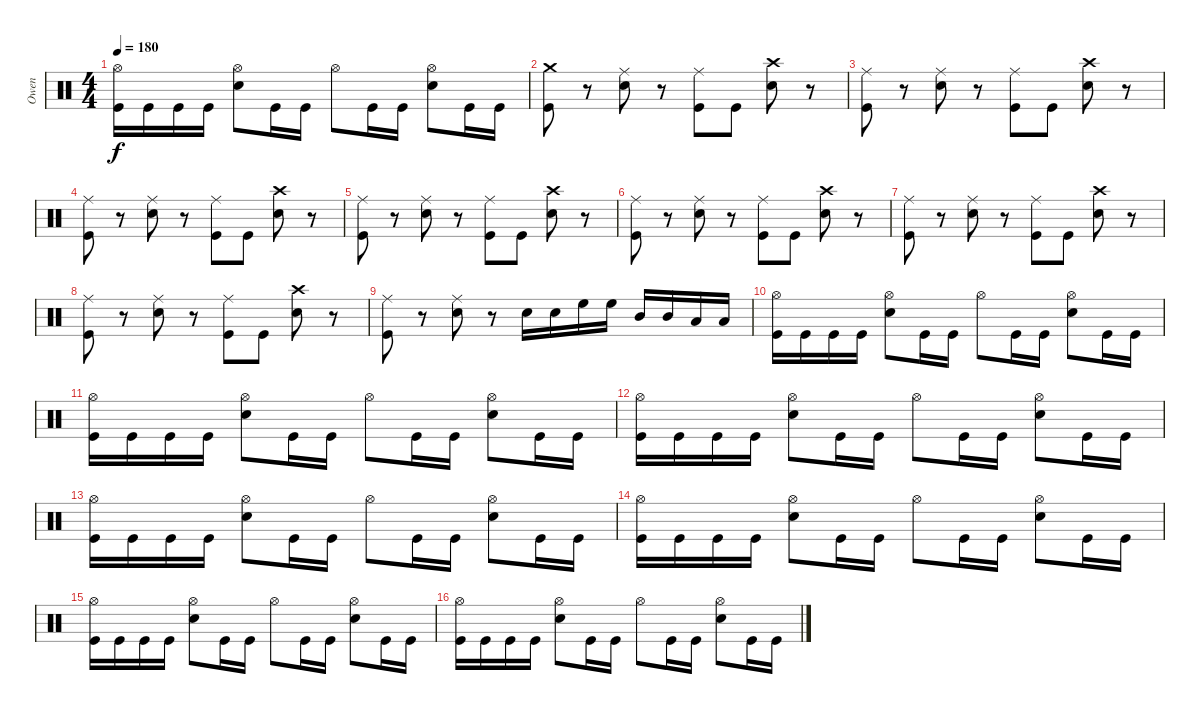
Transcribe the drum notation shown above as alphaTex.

\track ("Owen" "Owen") {instrument percussion}
\staff {score}
\articulation defaults
\ts (4 4)
\tempo 180
\clef neutral
\ks c
("Hi-Hat (open)" "Kick (hit)").16{dy f} "Kick (hit)".16 "Kick (hit)".16 "Kick (hit)".16 ("Hi-Hat (open)" "Snare (hit) 2").8 "Kick (hit)".16 "Kick (hit)".16 "Hi-Hat (open)".8 "Kick (hit)".16 "Kick (hit)".16 ("Hi-Hat (open)" "Snare (hit) 2").8 "Kick (hit)".16 "Kick (hit)".16 |
("Crash medium (hit)" "Kick (hit)").8 r.8 ("Ride (middle)" "Snare (hit) 2").8 r.8 ("Ride (middle)" "Kick (hit)").8 "Kick (hit)".8 ("Crash high (hit)" "Snare (hit) 2").8 r.8 |
("Ride (middle)" "Kick (hit)").8 r.8 ("Ride (middle)" "Snare (hit) 2").8 r.8 ("Ride (middle)" "Kick (hit)").8 "Kick (hit)".8 ("Crash high (hit)" "Snare (hit) 2").8 r.8 |
("Ride (middle)" "Kick (hit)").8 r.8 ("Ride (middle)" "Snare (hit) 2").8 r.8 ("Ride (middle)" "Kick (hit)").8 "Kick (hit)".8 ("Crash high (hit)" "Snare (hit) 2").8 r.8 |
("Ride (middle)" "Kick (hit)").8 r.8 ("Ride (middle)" "Snare (hit) 2").8 r.8 ("Ride (middle)" "Kick (hit)").8 "Kick (hit)".8 ("Crash high (hit)" "Snare (hit) 2").8 r.8 |
("Ride (middle)" "Kick (hit)").8 r.8 ("Ride (middle)" "Snare (hit) 2").8 r.8 ("Ride (middle)" "Kick (hit)").8 "Kick (hit)".8 ("Crash high (hit)" "Snare (hit) 2").8 r.8 |
("Ride (middle)" "Kick (hit)").8 r.8 ("Ride (middle)" "Snare (hit) 2").8 r.8 ("Ride (middle)" "Kick (hit)").8 "Kick (hit)".8 ("Crash high (hit)" "Snare (hit) 2").8 r.8 |
("Ride (middle)" "Kick (hit)").8 r.8 ("Ride (middle)" "Snare (hit) 2").8 r.8 ("Ride (middle)" "Kick (hit)").8 "Kick (hit)".8 ("Crash high (hit)" "Snare (hit) 2").8 r.8 |
("Ride (middle)" "Kick (hit)").8 r.8 ("Ride (middle)" "Snare (hit) 2").8 r.8 "Snare (hit) 2".16 "Snare (hit) 2".16 "High Floor Tom (hit)".16 "High Floor Tom (hit)".16 "Mid Tom (hit)".16 "Mid Tom (hit)".16 "Low Tom (hit)".16 "Low Tom (hit)".16 |
("Hi-Hat (open)" "Kick (hit)").16 "Kick (hit)".16 "Kick (hit)".16 "Kick (hit)".16 ("Hi-Hat (open)" "Snare (hit) 2").8 "Kick (hit)".16 "Kick (hit)".16 "Hi-Hat (open)".8 "Kick (hit)".16 "Kick (hit)".16 ("Hi-Hat (open)" "Snare (hit) 2").8 "Kick (hit)".16 "Kick (hit)".16 |
("Hi-Hat (open)" "Kick (hit)").16 "Kick (hit)".16 "Kick (hit)".16 "Kick (hit)".16 ("Hi-Hat (open)" "Snare (hit) 2").8 "Kick (hit)".16 "Kick (hit)".16 "Hi-Hat (open)".8 "Kick (hit)".16 "Kick (hit)".16 ("Hi-Hat (open)" "Snare (hit) 2").8 "Kick (hit)".16 "Kick (hit)".16 |
("Hi-Hat (open)" "Kick (hit)").16 "Kick (hit)".16 "Kick (hit)".16 "Kick (hit)".16 ("Hi-Hat (open)" "Snare (hit) 2").8 "Kick (hit)".16 "Kick (hit)".16 "Hi-Hat (open)".8 "Kick (hit)".16 "Kick (hit)".16 ("Hi-Hat (open)" "Snare (hit) 2").8 "Kick (hit)".16 "Kick (hit)".16 |
("Hi-Hat (open)" "Kick (hit)").16 "Kick (hit)".16 "Kick (hit)".16 "Kick (hit)".16 ("Hi-Hat (open)" "Snare (hit) 2").8 "Kick (hit)".16 "Kick (hit)".16 "Hi-Hat (open)".8 "Kick (hit)".16 "Kick (hit)".16 ("Hi-Hat (open)" "Snare (hit) 2").8 "Kick (hit)".16 "Kick (hit)".16 |
("Hi-Hat (open)" "Kick (hit)").16 "Kick (hit)".16 "Kick (hit)".16 "Kick (hit)".16 ("Hi-Hat (open)" "Snare (hit) 2").8 "Kick (hit)".16 "Kick (hit)".16 "Hi-Hat (open)".8 "Kick (hit)".16 "Kick (hit)".16 ("Hi-Hat (open)" "Snare (hit) 2").8 "Kick (hit)".16 "Kick (hit)".16 |
("Hi-Hat (open)" "Kick (hit)").16 "Kick (hit)".16 "Kick (hit)".16 "Kick (hit)".16 ("Hi-Hat (open)" "Snare (hit) 2").8 "Kick (hit)".16 "Kick (hit)".16 "Hi-Hat (open)".8 "Kick (hit)".16 "Kick (hit)".16 ("Hi-Hat (open)" "Snare (hit) 2").8 "Kick (hit)".16 "Kick (hit)".16 |
("Hi-Hat (open)" "Kick (hit)").16 "Kick (hit)".16 "Kick (hit)".16 "Kick (hit)".16 ("Hi-Hat (open)" "Snare (hit) 2").8 "Kick (hit)".16 "Kick (hit)".16 "Hi-Hat (open)".8 "Kick (hit)".16 "Kick (hit)".16 ("Hi-Hat (open)" "Snare (hit) 2").8 "Kick (hit)".16 "Kick (hit)".16
